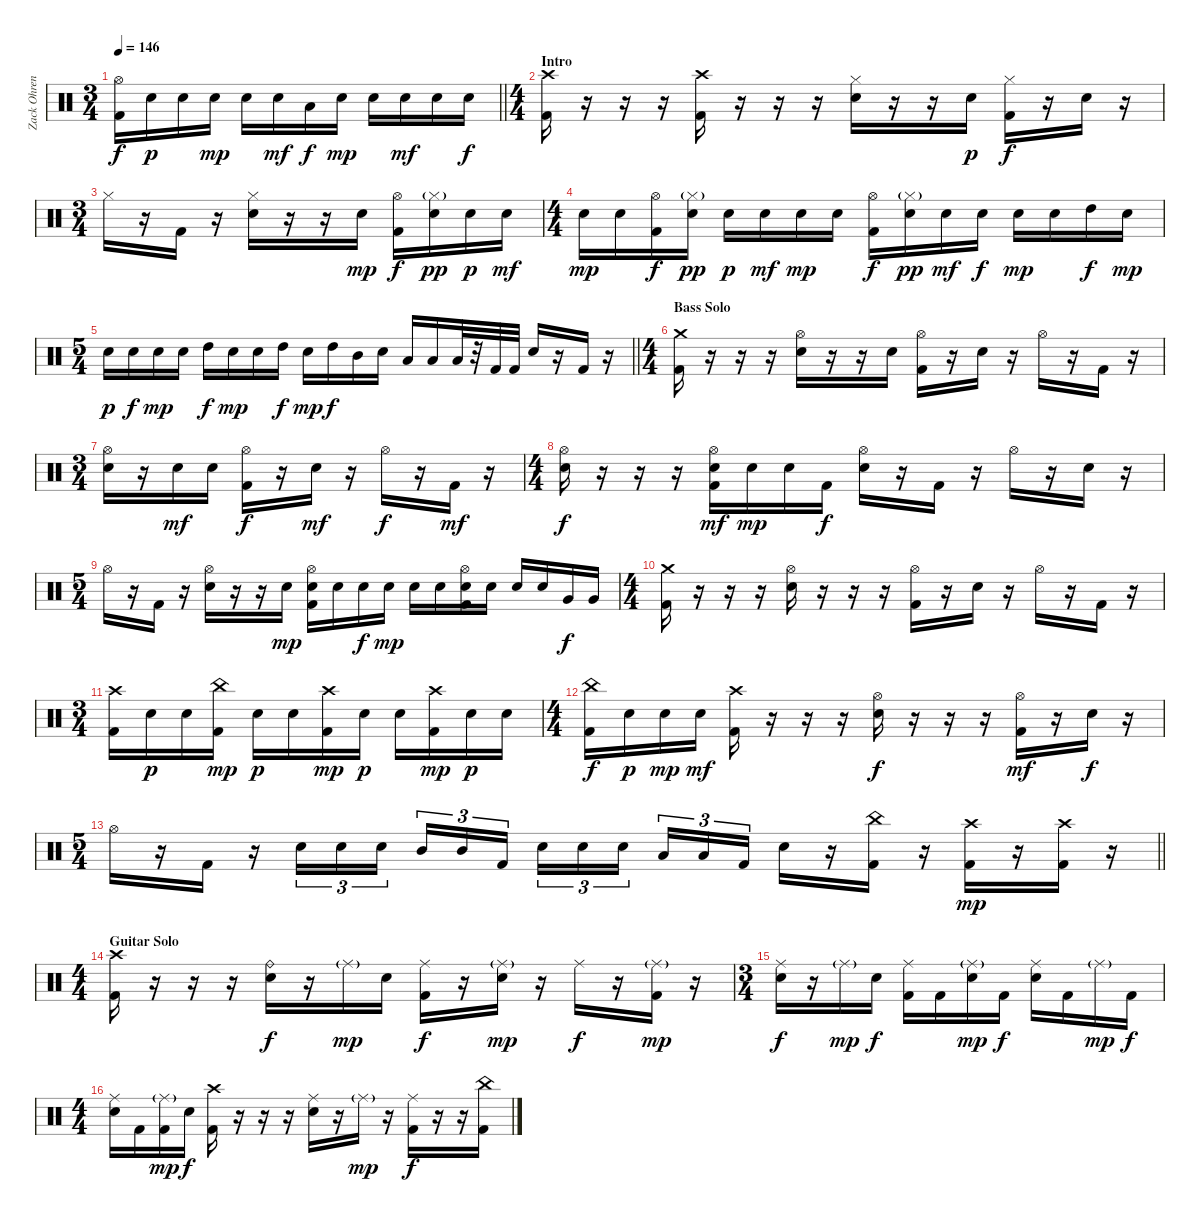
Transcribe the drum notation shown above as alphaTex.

\track ("Zack Ohren" "Zack Ohren") {instrument percussion}
\staff {score}
\articulation defaults
\ts (3 4)
\tempo 146
\clef neutral
\barLineRight lightlight
\ks c
("Hi-Hat (open)" "Kick (hit) 2").16{dy f} "Electric Snare (hit)".16{dy p} "Electric Snare (hit)".16 "Electric Snare (hit)".16{dy mp} "Electric Snare (hit)".16 "Electric Snare (hit)".16{dy mf} "Low Tom (hit)".16{dy f} "Electric Snare (hit)".16{dy mp} "Electric Snare (hit)".16 "Electric Snare (hit)".16{dy mf} "Electric Snare (hit)".16 "Electric Snare (hit)".16{dy f} |
\ts (4 4)
\section ("" "Intro")
("Crash high (hit)" "Kick (hit) 2").16 r.16 r.16 r.16 ("Crash high (hit)" "Kick (hit) 2").16 r.16 r.16 r.16 ("Electric Snare (hit)" "Hi-Hat (closed)").16 r.16 r.16 "Electric Snare (hit)".16{dy p} ("Kick (hit) 2" "Hi-Hat (closed)").16{dy f} r.16 "Electric Snare (hit)".16 r.16 |
\ts (3 4)
"Hi-Hat (closed)".16 r.16 "Kick (hit) 2".16 r.16 ("Electric Snare (hit)" "Hi-Hat (closed)").16 r.16 r.16 "Electric Snare (hit)".16{dy mp} ("Kick (hit) 2" "Hi-Hat (open)").16{dy f} ("Electric Snare (hit)" "Hi-Hat (closed)"{g}).16{dy pp} "Electric Snare (hit)".16{dy p} "Electric Snare (hit)".16{dy mf} |
\ts (4 4)
"Electric Snare (hit)".16{dy mp} "Electric Snare (hit)".16 ("Kick (hit) 2" "Hi-Hat (open)").16{dy f} ("Electric Snare (hit)" "Hi-Hat (closed)"{g}).16{dy pp} "Electric Snare (hit)".16{dy p} "Electric Snare (hit)".16{dy mf} "Electric Snare (hit)".16{dy mp} "Electric Snare (hit)".16 ("Kick (hit) 2" "Hi-Hat (open)").16{dy f} ("Electric Snare (hit)" "Hi-Hat (closed)"{g}).16{dy pp} "Electric Snare (hit)".16{dy mf} "Electric Snare (hit)".16{dy f} "Electric Snare (hit)".16{dy mp} "Electric Snare (hit)".16 "High Tom (hit)".16{dy f} "Electric Snare (hit)".16{dy mp} |
\ts (5 4)
\barLineRight lightlight "Electric Snare (hit)".16{dy p} "Electric Snare (hit)".16{dy f} "Electric Snare (hit)".16{dy mp} "Electric Snare (hit)".16 "High Tom (hit)".16{dy f} "Electric Snare (hit)".16{dy mp} "Electric Snare (hit)".16 "High Tom (hit)".16{dy f} "Electric Snare (hit)".16{dy mp} "High Tom (hit)".16{dy f} "Mid Tom (hit)".16 "Electric Snare (hit)".16 "Low Tom (hit)".16 "Low Tom (hit)".16 "Low Tom (hit)".32
r.32 "Kick (hit) 2".32 "Kick (hit) 2".32 "Electric Snare (hit)".16 r.16 "Kick (hit) 2".16 r.16 |
\ts (4 4)
\section ("" "Bass Solo")
("Crash medium (hit)" "Kick (hit) 2").16 r.16 r.16 r.16 ("Electric Snare (hit)" "Hi-Hat (open)").16 r.16 r.16 "Electric Snare (hit)".16 ("Kick (hit) 2" "Hi-Hat (open)").16 r.16 "Electric Snare (hit)".16 r.16 "Hi-Hat (open)".16 r.16 "Kick (hit) 2".16 r.16 |
\ts (3 4)
("Electric Snare (hit)" "Hi-Hat (open)").16 r.16 "Electric Snare (hit)".16{dy mf} "Electric Snare (hit)".16 ("Kick (hit) 2" "Hi-Hat (open)").16{dy f} r.16 "Electric Snare (hit)".16{dy mf} r.16 "Hi-Hat (open)".16{dy f} r.16 "Kick (hit) 2".16{dy mf} r.16 |
\ts (4 4)
("Electric Snare (hit)" "Hi-Hat (open)").16{dy f} r.16 r.16 r.16 ("Electric Snare (hit)" "Hi-Hat (open)" "Kick (hit) 2").16{dy mf} "Electric Snare (hit)".16{dy mp} "Electric Snare (hit)".16 "Kick (hit) 2".16{dy f} ("Electric Snare (hit)" "Hi-Hat (open)").16 r.16 "Kick (hit) 2".16 r.16 "Hi-Hat (open)".16 r.16 "Electric Snare (hit)".16 r.16 |
\ts (5 4)
"Hi-Hat (open)".16 r.16 "Kick (hit) 2".16 r.16 ("Electric Snare (hit)" "Hi-Hat (open)").16 r.16 r.16 "Electric Snare (hit)".16{dy mp} ("Electric Snare (hit)" "Hi-Hat (open)" "Kick (hit) 2").16 "Electric Snare (hit)".16 "Electric Snare (hit)".16{dy f} "Electric Snare (hit)".16{dy mp} "Electric Snare (hit)".16 "Electric Snare (hit)".16 ("Electric Snare (hit)" "Hi-Hat (open)" "Kick (hit) 2").16 "Electric Snare (hit)".16 "Electric Snare (hit)".16 "Electric Snare (hit)".16 "Very Low Tom (hit)".16{dy f} "Very Low Tom (hit)".16 |
\ts (4 4)
("Crash medium (hit)" "Kick (hit) 2").16 r.16 r.16 r.16 ("Electric Snare (hit)" "Hi-Hat (open)").16 r.16 r.16 r.16 ("Kick (hit) 2" "Hi-Hat (open)").16 r.16 "Electric Snare (hit)".16 r.16 "Hi-Hat (open)".16 r.16 "Kick (hit) 2".16 r.16 |
\ts (3 4)
("Kick (hit) 2" "Crash high (hit)").16 "Electric Snare (hit)".16{dy p} "Electric Snare (hit)".16 ("Kick (hit) 2" "China (hit)").16{dy mp} "Electric Snare (hit)".16{dy p} "Electric Snare (hit)".16 ("Kick (hit) 2" "Crash high (hit)").16{dy mp} "Electric Snare (hit)".16{dy p} "Electric Snare (hit)".16 ("Kick (hit) 2" "Crash high (hit)").16{dy mp} "Electric Snare (hit)".16{dy p} "Electric Snare (hit)".16 |
\ts (4 4)
("Kick (hit) 2" "China (hit)").16{dy f} "Electric Snare (hit)".16{dy p} "Electric Snare (hit)".16{dy mp} "Electric Snare (hit)".16{dy mf} ("Crash high (hit)" "Kick (hit) 2").16 r.16 r.16 r.16 ("Electric Snare (hit)" "Hi-Hat (open)").16{dy f} r.16 r.16 r.16 ("Kick (hit) 2" "Hi-Hat (open)").16{dy mf} r.16 "Electric Snare (hit)".16{dy f} r.16 |
\ts (5 4)
\barLineRight lightlight "Hi-Hat (open)".16
r.16 "Kick (hit) 2".16 r.16 "Electric Snare (hit)".16{tu (3 2)} "Electric Snare (hit)".16{tu (3 2)} "Electric Snare (hit)".16{tu (3 2) beam splitsecondary} "Mid Tom (hit)".16{tu (3 2)} "Mid Tom (hit)".16{tu (3 2)} "Kick (hit) 2".16{tu (3 2)} "Electric Snare (hit)".16{tu (3 2)} "Electric Snare (hit)".16{tu (3 2)} "Electric Snare (hit)".16{tu (3 2) beam splitsecondary} "Low Tom (hit)".16{tu (3 2)} "Low Tom (hit)".16{tu (3 2)} "Kick (hit) 2".16{tu (3 2)} "Electric Snare (hit)".16 r.16 ("Kick (hit) 2" "China (hit)").16 r.16 ("Kick (hit) 2" "Crash high (hit)").16{dy mp} r.16 ("Kick (hit) 2" "Crash high (hit)").16 r.16 |
\ts (4 4)
\section ("" "Guitar Solo")
("Kick (hit) 2" "Crash high (hit)").16 r.16 r.16 r.16 ("Electric Snare (hit)" "Ride (bell)").16{dy f} r.16 "Ride (middle)"{g}.16{dy mp} "Electric Snare (hit)".16 ("Kick (hit) 2" "Ride (middle)").16{dy f} r.16 ("Electric Snare (hit)" "Ride (middle)"{g}).16{dy mp} r.16 "Ride (middle)".16{dy f} r.16 ("Kick (hit) 2" "Ride (middle)"{g}).16{dy mp} r.16 |
\ts (3 4)
("Electric Snare (hit)" "Ride (middle)").16{dy f} r.16 "Ride (middle)"{g}.16{dy mp} "Electric Snare (hit)".16{dy f} ("Kick (hit) 2" "Ride (middle)").16 "Kick (hit) 2".16 ("Electric Snare (hit)" "Ride (middle)"{g}).16{dy mp} "Kick (hit) 2".16{dy f} ("Electric Snare (hit)" "Ride (middle)").16 "Kick (hit) 2".16 "Ride (middle)"{g}.16{dy mp} "Kick (hit) 2".16{dy f} |
\ts (4 4)
("Electric Snare (hit)" "Ride (middle)").16 "Kick (hit) 2".16 ("Kick (hit) 2" "Ride (middle)"{g}).16{dy mp} "Electric Snare (hit)".16{dy f} ("Kick (hit) 2" "Crash high (hit)").16 r.16 r.16 r.16 ("Electric Snare (hit)" "Ride (middle)").16 r.16 "Ride (middle)"{g}.16{dy mp} r.16 ("Kick (hit) 2" "Ride (middle)").16{dy f} r.16 r.16 ("Kick (hit) 2" "China (hit)").16
